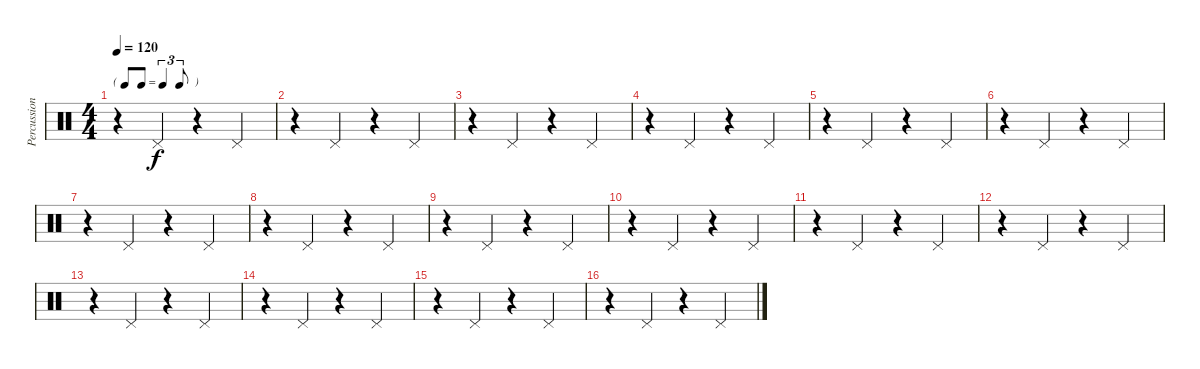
\track ("Percussion" "Percussion") {instrument percussion}
\staff {score}
\articulation defaults
\ts (4 4)
\tf triplet8th
\tempo 120
\clef neutral
\ks c
r.4{dy f} "Pedal Hi-Hat (hit)".4 r.4 "Pedal Hi-Hat (hit)".4 |
r.4 "Pedal Hi-Hat (hit)".4 r.4 "Pedal Hi-Hat (hit)".4 |
r.4 "Pedal Hi-Hat (hit)".4 r.4 "Pedal Hi-Hat (hit)".4 |
r.4 "Pedal Hi-Hat (hit)".4 r.4 "Pedal Hi-Hat (hit)".4 |
r.4 "Pedal Hi-Hat (hit)".4 r.4 "Pedal Hi-Hat (hit)".4 |
r.4 "Pedal Hi-Hat (hit)".4 r.4 "Pedal Hi-Hat (hit)".4 |
r.4 "Pedal Hi-Hat (hit)".4 r.4 "Pedal Hi-Hat (hit)".4 |
r.4 "Pedal Hi-Hat (hit)".4 r.4 "Pedal Hi-Hat (hit)".4 |
r.4 "Pedal Hi-Hat (hit)".4 r.4 "Pedal Hi-Hat (hit)".4 |
r.4 "Pedal Hi-Hat (hit)".4 r.4 "Pedal Hi-Hat (hit)".4 |
r.4 "Pedal Hi-Hat (hit)".4 r.4 "Pedal Hi-Hat (hit)".4 |
r.4 "Pedal Hi-Hat (hit)".4 r.4 "Pedal Hi-Hat (hit)".4 |
r.4 "Pedal Hi-Hat (hit)".4 r.4 "Pedal Hi-Hat (hit)".4 |
r.4 "Pedal Hi-Hat (hit)".4 r.4 "Pedal Hi-Hat (hit)".4 |
r.4 "Pedal Hi-Hat (hit)".4 r.4 "Pedal Hi-Hat (hit)".4 |
r.4 "Pedal Hi-Hat (hit)".4 r.4 "Pedal Hi-Hat (hit)".4
